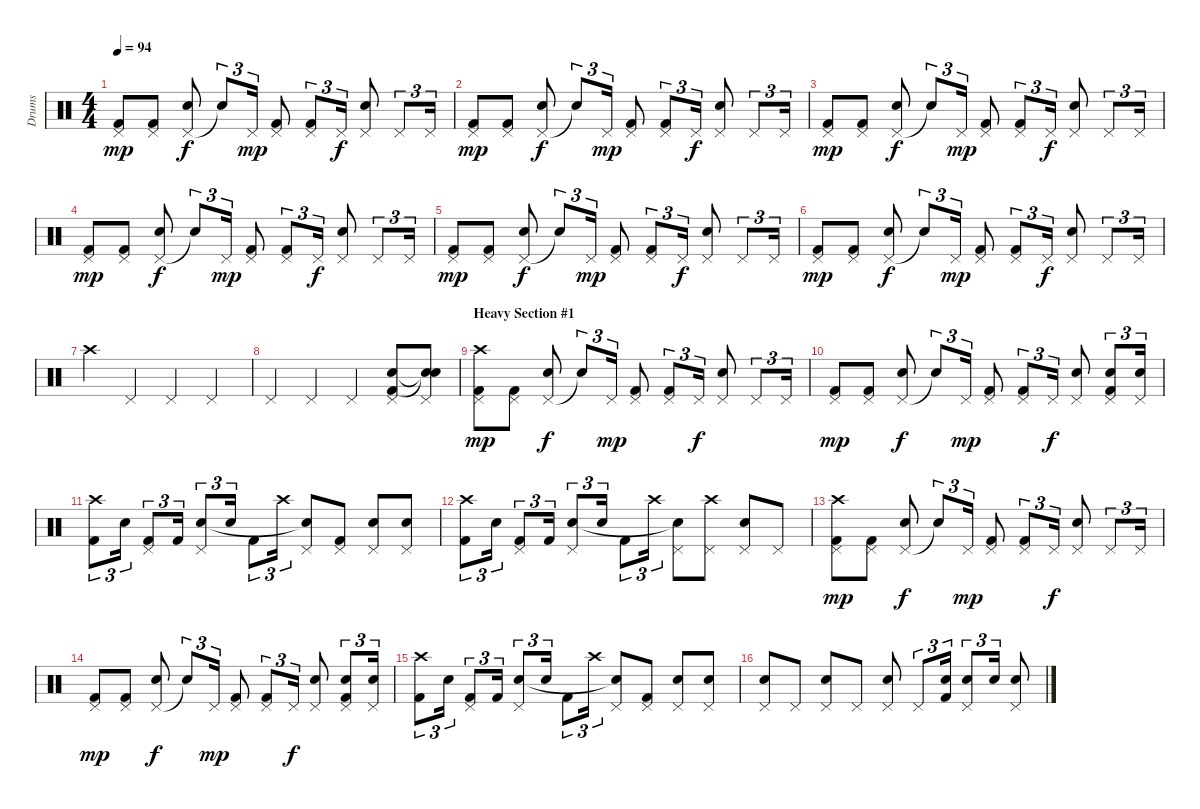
\track ("Drums" "Drums") {instrument percussion}
\staff {score}
\articulation defaults
\ts (4 4)
\tempo 94
\clef neutral
\ks c
("Pedal Hi-Hat (hit)" "Kick (hit) 2").8{dy mp} ("Pedal Hi-Hat (hit)" "Kick (hit) 2").8 ("Pedal Hi-Hat (hit)" "Electric Snare (hit)").8{dy f} "Snare (hit)"{t}.8{tu (3 2)} "Pedal Hi-Hat (hit)".16{tu (3 2) dy mp} ("Pedal Hi-Hat (hit)" "Kick (hit) 2").8 ("Pedal Hi-Hat (hit)" "Kick (hit) 2").8{tu (3 2)} "Pedal Hi-Hat (hit)".16{tu (3 2) dy f} ("Pedal Hi-Hat (hit)" "Electric Snare (hit)").8 "Pedal Hi-Hat (hit)".8{tu (3 2)} "Pedal Hi-Hat (hit)".16{tu (3 2)} |
("Pedal Hi-Hat (hit)" "Kick (hit) 2").8{dy mp} ("Pedal Hi-Hat (hit)" "Kick (hit) 2").8 ("Pedal Hi-Hat (hit)" "Electric Snare (hit)").8{dy f} "Snare (hit)"{t}.8{tu (3 2)} "Pedal Hi-Hat (hit)".16{tu (3 2) dy mp} ("Pedal Hi-Hat (hit)" "Kick (hit) 2").8 ("Pedal Hi-Hat (hit)" "Kick (hit) 2").8{tu (3 2)} "Pedal Hi-Hat (hit)".16{tu (3 2) dy f} ("Pedal Hi-Hat (hit)" "Electric Snare (hit)").8 "Pedal Hi-Hat (hit)".8{tu (3 2)} "Pedal Hi-Hat (hit)".16{tu (3 2)} |
("Pedal Hi-Hat (hit)" "Kick (hit) 2").8{dy mp} ("Pedal Hi-Hat (hit)" "Kick (hit) 2").8 ("Pedal Hi-Hat (hit)" "Electric Snare (hit)").8{dy f} "Snare (hit)"{t}.8{tu (3 2)} "Pedal Hi-Hat (hit)".16{tu (3 2) dy mp} ("Pedal Hi-Hat (hit)" "Kick (hit) 2").8 ("Pedal Hi-Hat (hit)" "Kick (hit) 2").8{tu (3 2)} "Pedal Hi-Hat (hit)".16{tu (3 2) dy f} ("Pedal Hi-Hat (hit)" "Electric Snare (hit)").8 "Pedal Hi-Hat (hit)".8{tu (3 2)} "Pedal Hi-Hat (hit)".16{tu (3 2)} |
("Pedal Hi-Hat (hit)" "Kick (hit) 2").8{dy mp} ("Pedal Hi-Hat (hit)" "Kick (hit) 2").8 ("Pedal Hi-Hat (hit)" "Electric Snare (hit)").8{dy f} "Snare (hit)"{t}.8{tu (3 2)} "Pedal Hi-Hat (hit)".16{tu (3 2) dy mp} ("Pedal Hi-Hat (hit)" "Kick (hit) 2").8 ("Pedal Hi-Hat (hit)" "Kick (hit) 2").8{tu (3 2)} "Pedal Hi-Hat (hit)".16{tu (3 2) dy f} ("Pedal Hi-Hat (hit)" "Electric Snare (hit)").8 "Pedal Hi-Hat (hit)".8{tu (3 2)} "Pedal Hi-Hat (hit)".16{tu (3 2)} |
("Pedal Hi-Hat (hit)" "Kick (hit) 2").8{dy mp} ("Pedal Hi-Hat (hit)" "Kick (hit) 2").8 ("Pedal Hi-Hat (hit)" "Electric Snare (hit)").8{dy f} "Snare (hit)"{t}.8{tu (3 2)} "Pedal Hi-Hat (hit)".16{tu (3 2) dy mp} ("Pedal Hi-Hat (hit)" "Kick (hit) 2").8 ("Pedal Hi-Hat (hit)" "Kick (hit) 2").8{tu (3 2)} "Pedal Hi-Hat (hit)".16{tu (3 2) dy f} ("Pedal Hi-Hat (hit)" "Electric Snare (hit)").8 "Pedal Hi-Hat (hit)".8{tu (3 2)} "Pedal Hi-Hat (hit)".16{tu (3 2)} |
("Pedal Hi-Hat (hit)" "Kick (hit) 2").8{dy mp} ("Pedal Hi-Hat (hit)" "Kick (hit) 2").8 ("Pedal Hi-Hat (hit)" "Electric Snare (hit)").8{dy f} "Snare (hit)"{t}.8{tu (3 2)} "Pedal Hi-Hat (hit)".16{tu (3 2) dy mp} ("Pedal Hi-Hat (hit)" "Kick (hit) 2").8 ("Pedal Hi-Hat (hit)" "Kick (hit) 2").8{tu (3 2)} "Pedal Hi-Hat (hit)".16{tu (3 2) dy f} ("Pedal Hi-Hat (hit)" "Electric Snare (hit)").8 "Pedal Hi-Hat (hit)".8{tu (3 2)} "Pedal Hi-Hat (hit)".16{tu (3 2)} |
"Crash high (hit)".4 "Pedal Hi-Hat (hit)".4 "Pedal Hi-Hat (hit)".4 "Pedal Hi-Hat (hit)".4 |
"Pedal Hi-Hat (hit)".4 "Pedal Hi-Hat (hit)".4 "Pedal Hi-Hat (hit)".4 ("Pedal Hi-Hat (hit)" "Electric Snare (hit)" "Kick (hit) 2").8 ("Pedal Hi-Hat (hit)" "Snare (hit)"{t} "Snare (hit)"{t}).8 |
\section ("" "Heavy Section #1")
("Pedal Hi-Hat (hit)" "Kick (hit) 2" "Crash high (hit)").8{dy mp} ("Pedal Hi-Hat (hit)" "Kick (hit) 2").8 ("Pedal Hi-Hat (hit)" "Electric Snare (hit)").8{dy f} "Snare (hit)"{t}.8{tu (3 2)} "Pedal Hi-Hat (hit)".16{tu (3 2) dy mp} ("Pedal Hi-Hat (hit)" "Kick (hit) 2").8 ("Pedal Hi-Hat (hit)" "Kick (hit) 2").8{tu (3 2)} "Pedal Hi-Hat (hit)".16{tu (3 2) dy f} ("Pedal Hi-Hat (hit)" "Electric Snare (hit)").8 "Pedal Hi-Hat (hit)".8{tu (3 2)} "Pedal Hi-Hat (hit)".16{tu (3 2)} |
("Pedal Hi-Hat (hit)" "Kick (hit) 2").8{dy mp} ("Pedal Hi-Hat (hit)" "Kick (hit) 2").8 ("Pedal Hi-Hat (hit)" "Electric Snare (hit)").8{dy f} "Snare (hit)"{t}.8{tu (3 2)} "Pedal Hi-Hat (hit)".16{tu (3 2) dy mp} ("Pedal Hi-Hat (hit)" "Kick (hit) 2").8 ("Pedal Hi-Hat (hit)" "Kick (hit) 2").8{tu (3 2)} "Pedal Hi-Hat (hit)".16{tu (3 2) dy f} ("Pedal Hi-Hat (hit)" "Electric Snare (hit)").8 ("Pedal Hi-Hat (hit)" "Electric Snare (hit)" "Kick (hit) 2").8{tu (3 2)} ("Pedal Hi-Hat (hit)" "Electric Snare (hit)").16{tu (3 2)} |
("Kick (hit) 2" "Crash high (hit)").8{tu (3 2)} "Electric Snare (hit)".16{tu (3 2)} ("Pedal Hi-Hat (hit)" "Kick (hit) 2").8{tu (3 2)} "Kick (hit) 2".16{tu (3 2)} ("Pedal Hi-Hat (hit)" "Electric Snare (hit)").8{tu (3 2)} "Electric Snare (hit)".16{tu (3 2)} "Kick (hit) 2".8{tu (3 2)} "Crash high (hit)".16{tu (3 2)} ("Pedal Hi-Hat (hit)" "Snare (hit)"{t}).8 ("Pedal Hi-Hat (hit)" "Kick (hit) 2").8 ("Pedal Hi-Hat (hit)" "Electric Snare (hit)").8 ("Pedal Hi-Hat (hit)" "Electric Snare (hit)").8 |
("Kick (hit) 2" "Crash high (hit)").8{tu (3 2)} "Electric Snare (hit)".16{tu (3 2)} ("Pedal Hi-Hat (hit)" "Kick (hit) 2").8{tu (3 2)} "Kick (hit) 2".16{tu (3 2)} ("Pedal Hi-Hat (hit)" "Electric Snare (hit)").8{tu (3 2)} "Electric Snare (hit)".16{tu (3 2)} "Kick (hit) 2".8{tu (3 2)} "Crash high (hit)".16{tu (3 2)} ("Pedal Hi-Hat (hit)" "Snare (hit)"{t}).8 ("Pedal Hi-Hat (hit)" "Crash high (hit)").8 ("Pedal Hi-Hat (hit)" "Electric Snare (hit)").8 "Pedal Hi-Hat (hit)".8 |
("Pedal Hi-Hat (hit)" "Kick (hit) 2" "Crash high (hit)").8{dy mp} ("Pedal Hi-Hat (hit)" "Kick (hit) 2").8 ("Pedal Hi-Hat (hit)" "Electric Snare (hit)").8{dy f} "Snare (hit)"{t}.8{tu (3 2)} "Pedal Hi-Hat (hit)".16{tu (3 2) dy mp} ("Pedal Hi-Hat (hit)" "Kick (hit) 2").8 ("Pedal Hi-Hat (hit)" "Kick (hit) 2").8{tu (3 2)} "Pedal Hi-Hat (hit)".16{tu (3 2) dy f} ("Pedal Hi-Hat (hit)" "Electric Snare (hit)").8 "Pedal Hi-Hat (hit)".8{tu (3 2)} "Pedal Hi-Hat (hit)".16{tu (3 2)} |
("Pedal Hi-Hat (hit)" "Kick (hit) 2").8{dy mp} ("Pedal Hi-Hat (hit)" "Kick (hit) 2").8 ("Pedal Hi-Hat (hit)" "Electric Snare (hit)").8{dy f} "Snare (hit)"{t}.8{tu (3 2)} "Pedal Hi-Hat (hit)".16{tu (3 2) dy mp} ("Pedal Hi-Hat (hit)" "Kick (hit) 2").8 ("Pedal Hi-Hat (hit)" "Kick (hit) 2").8{tu (3 2)} "Pedal Hi-Hat (hit)".16{tu (3 2) dy f} ("Pedal Hi-Hat (hit)" "Electric Snare (hit)").8 ("Pedal Hi-Hat (hit)" "Electric Snare (hit)" "Kick (hit) 2").8{tu (3 2)} ("Pedal Hi-Hat (hit)" "Electric Snare (hit)").16{tu (3 2)} |
("Kick (hit) 2" "Crash high (hit)").8{tu (3 2)} "Electric Snare (hit)".16{tu (3 2)} ("Pedal Hi-Hat (hit)" "Kick (hit) 2").8{tu (3 2)} "Kick (hit) 2".16{tu (3 2)} ("Pedal Hi-Hat (hit)" "Electric Snare (hit)").8{tu (3 2)} "Electric Snare (hit)".16{tu (3 2)} "Kick (hit) 2".8{tu (3 2)} "Crash high (hit)".16{tu (3 2)} ("Pedal Hi-Hat (hit)" "Snare (hit)"{t}).8 ("Pedal Hi-Hat (hit)" "Kick (hit) 2").8 ("Pedal Hi-Hat (hit)" "Electric Snare (hit)").8 ("Pedal Hi-Hat (hit)" "Electric Snare (hit)").8 |
("Pedal Hi-Hat (hit)" "Electric Snare (hit)").8 "Pedal Hi-Hat (hit)".8 ("Pedal Hi-Hat (hit)" "Electric Snare (hit)").8 "Pedal Hi-Hat (hit)".8 ("Pedal Hi-Hat (hit)" "Electric Snare (hit)").8 "Pedal Hi-Hat (hit)".8{tu (3 2)} ("Electric Snare (hit)" "Kick (hit) 2").16{tu (3 2)} ("Pedal Hi-Hat (hit)" "Electric Snare (hit)").8{tu (3 2)} "Electric Snare (hit)".16{tu (3 2)} ("Pedal Hi-Hat (hit)" "Electric Snare (hit)").8
